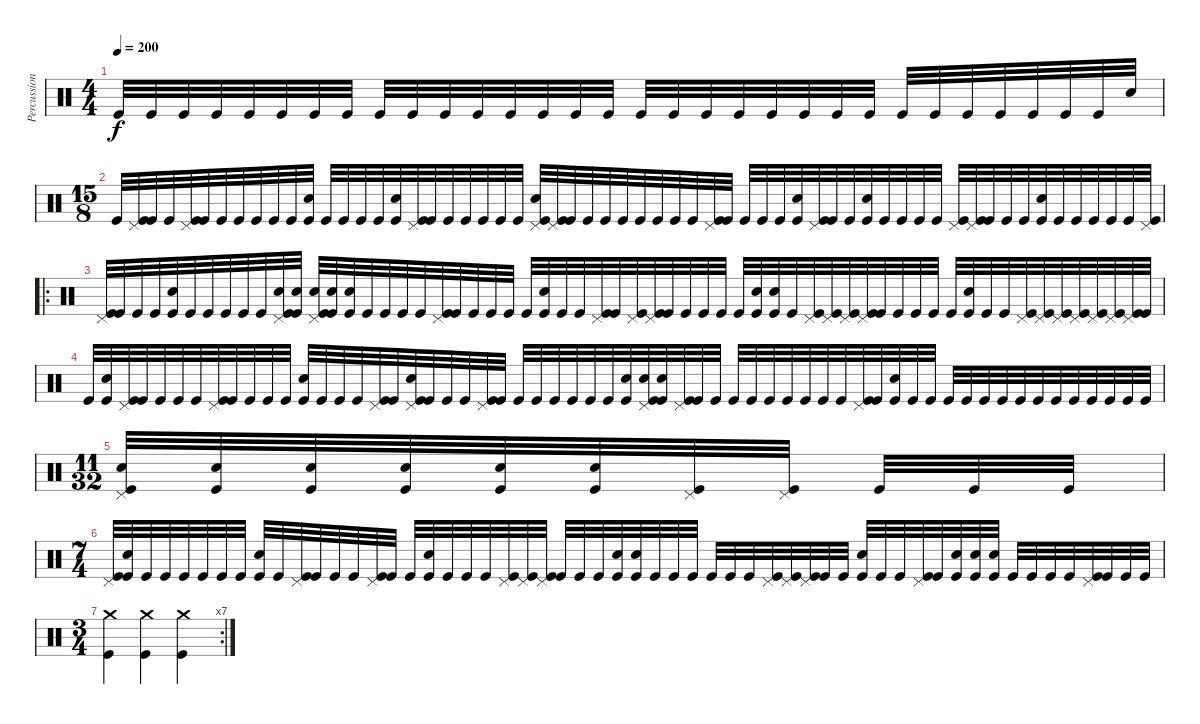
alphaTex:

\track ("Percussion" "Percussion") {instrument percussion}
\staff {score}
\articulation defaults
\ts (4 4)
\tempo 200
\clef neutral
\ks c "Kick (hit)".32{dy f} "Kick (hit)".32 "Kick (hit)".32 "Kick (hit)".32 "Kick (hit)".32 "Kick (hit)".32 "Kick (hit)".32 "Kick (hit)".32 "Kick (hit)".32 "Kick (hit)".32 "Kick (hit)".32 "Kick (hit)".32 "Kick (hit)".32 "Kick (hit)".32 "Kick (hit)".32 "Kick (hit)".32 "Kick (hit)".32 "Kick (hit)".32 "Kick (hit)".32 "Kick (hit)".32 "Kick (hit)".32 "Kick (hit)".32 "Kick (hit)".32 "Kick (hit)".32 "Kick (hit)".32 "Kick (hit)".32 "Kick (hit)".32 "Kick (hit)".32 "Kick (hit)".32 "Kick (hit)".32 "Kick (hit)".32 "Snare (hit)".32
|
\ts (15 8)
"Kick (hit)".32 ("Pedal Hi-Hat (hit)" "Kick (hit)").32 "Kick (hit)".32 "Kick (hit)".32 ("Pedal Hi-Hat (hit)" "Kick (hit)").32 "Kick (hit)".32 "Kick (hit)".32 "Kick (hit)".32 "Kick (hit)".32 "Kick (hit)".32 "Kick (hit)".32 ("Snare (hit) 2" "Kick (hit)").32 "Kick (hit)".32 "Kick (hit)".32 "Kick (hit)".32 "Kick (hit)".32 ("Snare (hit) 2" "Kick (hit)").32 ("Pedal Hi-Hat (hit)" "Kick (hit)").32 "Kick (hit)".32 "Kick (hit)".32 "Kick (hit)".32 "Kick (hit)".32 "Kick (hit)".32 "Kick (hit)".32 ("Pedal Hi-Hat (hit)" "Snare (hit) 2" "Kick (hit)").32 ("Pedal Hi-Hat (hit)" "Kick (hit)").32 "Kick (hit)".32 "Kick (hit)".32 "Kick (hit)".32 "Kick (hit)".32 "Kick (hit)".32 "Kick (hit)".32 "Kick (hit)".32 "Kick (hit)".32 ("Pedal Hi-Hat (hit)" "Kick (hit)").32 "Kick (hit)".32 "Kick (hit)".32 "Kick (hit)".32 "Kick (hit)".32 ("Snare (hit) 2" "Kick (hit)").32 ("Pedal Hi-Hat (hit)" "Kick (hit)").32 "Kick (hit)".32 "Kick (hit)".32 ("Snare (hit) 2" "Kick (hit)").32 "Kick (hit)".32 "Kick (hit)".32 "Kick (hit)".32 "Kick (hit)".32 ("Pedal Hi-Hat (hit)" "Kick (hit)").32 ("Pedal Hi-Hat (hit)" "Kick (hit)").32 "Kick (hit)".32 "Kick (hit)".32 "Kick (hit)".32 ("Snare (hit) 2" "Kick (hit)").32 "Kick (hit)".32 "Kick (hit)".32 "Kick (hit)".32 "Kick (hit)".32 "Kick (hit)".32 ("Pedal Hi-Hat (hit)" "Kick (hit)").32 |
\ro
("Pedal Hi-Hat (hit)" "Kick (hit)").32 "Kick (hit)".32 "Kick (hit)".32 "Kick (hit)".32 ("Snare (hit) 2" "Kick (hit)").32 "Kick (hit)".32 "Kick (hit)".32 "Kick (hit)".32 "Kick (hit)".32 "Kick (hit)".32 ("Pedal Hi-Hat (hit)" "Snare (hit) 2" "Kick (hit)").32 ("Snare (hit) 2" "Kick (hit)").32 ("Pedal Hi-Hat (hit)" "Snare (hit) 2" "Kick (hit)").32 ("Snare (hit) 2" "Kick (hit)").32 ("Snare (hit) 2" "Kick (hit)").32 "Kick (hit)".32 "Kick (hit)".32 "Kick (hit)".32 "Kick (hit)".32 ("Pedal Hi-Hat (hit)" "Kick (hit)").32 "Kick (hit)".32 "Kick (hit)".32 "Kick (hit)".32 "Kick (hit)".32 "Kick (hit)".32 ("Snare (hit) 2" "Kick (hit)").32 "Kick (hit)".32 "Kick (hit)".32 ("Pedal Hi-Hat (hit)" "Kick (hit)").32 "Kick (hit)".32 ("Pedal Hi-Hat (hit)" "Kick (hit)").32 ("Pedal Hi-Hat (hit)" "Kick (hit)").32 "Kick (hit)".32 "Kick (hit)".32 "Kick (hit)".32 "Kick (hit)".32 "Kick (hit)".32 ("Snare (hit) 2" "Kick (hit)").32 ("Snare (hit) 2" "Kick (hit)").32 "Kick (hit)".32 ("Pedal Hi-Hat (hit)" "Kick (hit)").32 ("Pedal Hi-Hat (hit)" "Kick (hit)").32 ("Pedal Hi-Hat (hit)" "Kick (hit)").32 ("Pedal Hi-Hat (hit)" "Kick (hit)").32 "Kick (hit)".32 "Kick (hit)".32 "Kick (hit)".32 "Kick (hit)".32 "Kick (hit)".32 ("Snare (hit) 2" "Kick (hit)").32 "Kick (hit)".32 "Kick (hit)".32 ("Pedal Hi-Hat (hit)" "Kick (hit)").32 ("Pedal Hi-Hat (hit)" "Kick (hit)").32 ("Pedal Hi-Hat (hit)" "Kick (hit)").32 ("Pedal Hi-Hat (hit)" "Kick (hit)").32 ("Pedal Hi-Hat (hit)" "Kick (hit)").32 ("Pedal Hi-Hat (hit)" "Kick (hit)").32 ("Pedal Hi-Hat (hit)" "Kick (hit)").32 "Kick (hit)".32 |
"Kick (hit)".32 ("Snare (hit) 2" "Kick (hit)").32 ("Pedal Hi-Hat (hit)" "Kick (hit)").32 "Kick (hit)".32 "Kick (hit)".32 "Kick (hit)".32 "Kick (hit)".32 ("Pedal Hi-Hat (hit)" "Kick (hit)").32 "Kick (hit)".32 "Kick (hit)".32 "Kick (hit)".32 "Kick (hit)".32 ("Snare (hit) 2" "Kick (hit)").32 "Kick (hit)".32 "Kick (hit)".32 "Kick (hit)".32 ("Pedal Hi-Hat (hit)" "Kick (hit)").32 "Kick (hit)".32 ("Pedal Hi-Hat (hit)" "Snare (hit) 2" "Kick (hit)").32 "Kick (hit)".32 "Kick (hit)".32 "Kick (hit)".32 ("Pedal Hi-Hat (hit)" "Kick (hit)").32 "Kick (hit)".32 "Kick (hit)".32 "Kick (hit)".32 "Kick (hit)".32 "Kick (hit)".32 "Kick (hit)".32 "Kick (hit)".32 ("Snare (hit) 2" "Kick (hit)").32 ("Pedal Hi-Hat (hit)" "Snare (hit) 2" "Kick (hit)").32 ("Snare (hit) 2" "Kick (hit)").32 ("Pedal Hi-Hat (hit)" "Kick (hit)").32 "Kick (hit)".32 "Kick (hit)".32 "Kick (hit)".32 "Kick (hit)".32 "Kick (hit)".32 "Kick (hit)".32 "Kick (hit)".32 "Kick (hit)".32 "Kick (hit)".32 ("Pedal Hi-Hat (hit)" "Kick (hit)").32 "Kick (hit)".32 ("Snare (hit) 2" "Kick (hit)").32 "Kick (hit)".32 "Kick (hit)".32 "Kick (hit)".32 "Kick (hit)".32 "Kick (hit)".32 "Kick (hit)".32 "Kick (hit)".32 "Kick (hit)".32 "Kick (hit)".32 "Kick (hit)".32 "Kick (hit)".32 "Kick (hit)".32 "Kick (hit)".32 "Kick (hit)".32 |
\ts (11 32)
("Pedal Hi-Hat (hit)" "Snare (hit) 2" "Kick (hit)").32 ("Snare (hit) 2" "Kick (hit)").32 ("Snare (hit) 2" "Kick (hit)").32 ("Snare (hit) 2" "Kick (hit)").32 ("Snare (hit) 2" "Kick (hit)").32 ("Snare (hit) 2" "Kick (hit)").32 ("Pedal Hi-Hat (hit)" "Kick (hit)").32 ("Pedal Hi-Hat (hit)" "Kick (hit)").32 "Kick (hit)".32 "Kick (hit)".32 "Kick (hit)".32 |
\ts (7 4)
("Pedal Hi-Hat (hit)" "Kick (hit)").32 ("Snare (hit) 2" "Kick (hit)").32 "Kick (hit)".32 "Kick (hit)".32 "Kick (hit)".32 "Kick (hit)".32 "Kick (hit)".32 "Kick (hit)".32 ("Snare (hit) 2" "Kick (hit)").32 "Kick (hit)".32 ("Pedal Hi-Hat (hit)" "Kick (hit)").32 "Kick (hit)".32 "Kick (hit)".32 "Kick (hit)".32 ("Pedal Hi-Hat (hit)" "Kick (hit)").32 "Kick (hit)".32 "Kick (hit)".32 ("Snare (hit) 2" "Kick (hit)").32 "Kick (hit)".32 "Kick (hit)".32 "Kick (hit)".32 ("Pedal Hi-Hat (hit)" "Kick (hit)").32 ("Pedal Hi-Hat (hit)" "Kick (hit)").32 ("Pedal Hi-Hat (hit)" "Kick (hit)").32 "Kick (hit)".32 "Kick (hit)".32 "Kick (hit)".32 ("Snare (hit) 2" "Kick (hit)").32 ("Snare (hit) 2" "Kick (hit)").32 "Kick (hit)".32 "Kick (hit)".32 "Kick (hit)".32 "Kick (hit)".32 "Kick (hit)".32 "Kick (hit)".32 ("Pedal Hi-Hat (hit)" "Kick (hit)").32 ("Pedal Hi-Hat (hit)" "Kick (hit)").32 ("Pedal Hi-Hat (hit)" "Kick (hit)").32 "Kick (hit)".32 "Kick (hit)".32 ("Snare (hit) 2" "Kick (hit)").32 "Kick (hit)".32 "Kick (hit)".32 ("Pedal Hi-Hat (hit)" "Kick (hit)").32 "Kick (hit)".32 ("Snare (hit) 2" "Kick (hit)").32 ("Snare (hit) 2" "Kick (hit)").32 ("Snare (hit) 2" "Kick (hit)").32 "Kick (hit)".32 "Kick (hit)".32 "Kick (hit)".32 "Kick (hit)".32 ("Pedal Hi-Hat (hit)" "Kick (hit)").32 "Kick (hit)".32 "Kick (hit)".32 "Kick (hit)".32 |
\rc 7
\ts (3 4)
("Crash medium (hit)" "Kick (hit)").4 ("Crash medium (hit)" "Kick (hit)").4 ("Crash medium (hit)" "Kick (hit)").4
